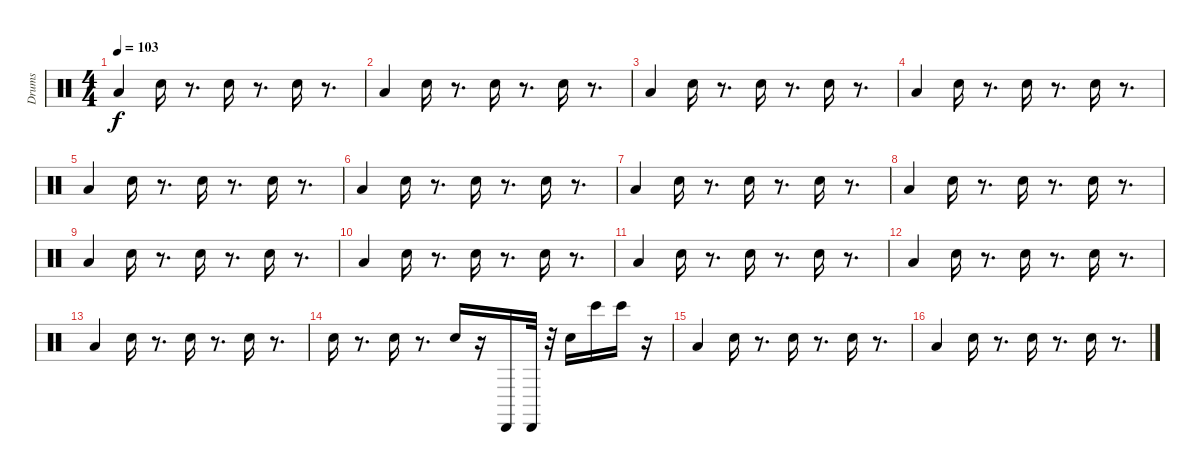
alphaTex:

\track ("Drums" "Drums") {instrument percussion}
\staff {score}
\articulation defaults
\ts (4 4)
\tempo 103
\clef neutral
\ks c "Low Tom (hit)".4{dy f} "Electric Snare (hit)".16
r.8{d} "Electric Snare (hit)".16 r.8{d} "Electric Snare (hit)".16 r.8{d} |
"Low Tom (hit)".4 "Electric Snare (hit)".16 r.8{d} "Electric Snare (hit)".16 r.8{d} "Electric Snare (hit)".16 r.8{d} |
"Low Tom (hit)".4 "Electric Snare (hit)".16 r.8{d} "Electric Snare (hit)".16 r.8{d} "Electric Snare (hit)".16 r.8{d} |
"Low Tom (hit)".4 "Electric Snare (hit)".16 r.8{d} "Electric Snare (hit)".16 r.8{d} "Electric Snare (hit)".16 r.8{d} |
"Low Tom (hit)".4 "Electric Snare (hit)".16 r.8{d} "Electric Snare (hit)".16 r.8{d} "Electric Snare (hit)".16 r.8{d} |
"Low Tom (hit)".4 "Electric Snare (hit)".16 r.8{d} "Electric Snare (hit)".16 r.8{d} "Electric Snare (hit)".16 r.8{d} |
"Low Tom (hit)".4 "Electric Snare (hit)".16 r.8{d} "Electric Snare (hit)".16 r.8{d} "Electric Snare (hit)".16 r.8{d} |
"Low Tom (hit)".4 "Electric Snare (hit)".16 r.8{d} "Electric Snare (hit)".16 r.8{d} "Electric Snare (hit)".16 r.8{d} |
"Low Tom (hit)".4 "Electric Snare (hit)".16 r.8{d} "Electric Snare (hit)".16 r.8{d} "Electric Snare (hit)".16 r.8{d} |
"Low Tom (hit)".4 "Electric Snare (hit)".16 r.8{d} "Electric Snare (hit)".16 r.8{d} "Electric Snare (hit)".16 r.8{d} |
"Low Tom (hit)".4 "Electric Snare (hit)".16 r.8{d} "Electric Snare (hit)".16 r.8{d} "Electric Snare (hit)".16 r.8{d} |
"Low Tom (hit)".4 "Electric Snare (hit)".16 r.8{d} "Electric Snare (hit)".16 r.8{d} "Electric Snare (hit)".16 r.8{d} |
"Low Tom (hit)".4 "Electric Snare (hit)".16 r.8{d} "Electric Snare (hit)".16 r.8{d} "Electric Snare (hit)".16 r.8{d} |
"Electric Snare (hit)".16 r.8{d} "Electric Snare (hit)".16 r.8{d} "Electric Snare (hit)".16 r.16 "Cabasa (hit)".16 "Cabasa (hit)".32 r.32 "Electric Snare (hit)".16 "Bongo High (hit)".16 "Bongo High (hit)".16 r.16 |
"Low Tom (hit)".4 "Electric Snare (hit)".16 r.8{d} "Electric Snare (hit)".16 r.8{d} "Electric Snare (hit)".16 r.8{d} |
"Low Tom (hit)".4 "Electric Snare (hit)".16 r.8{d} "Electric Snare (hit)".16 r.8{d} "Electric Snare (hit)".16 r.8{d}
